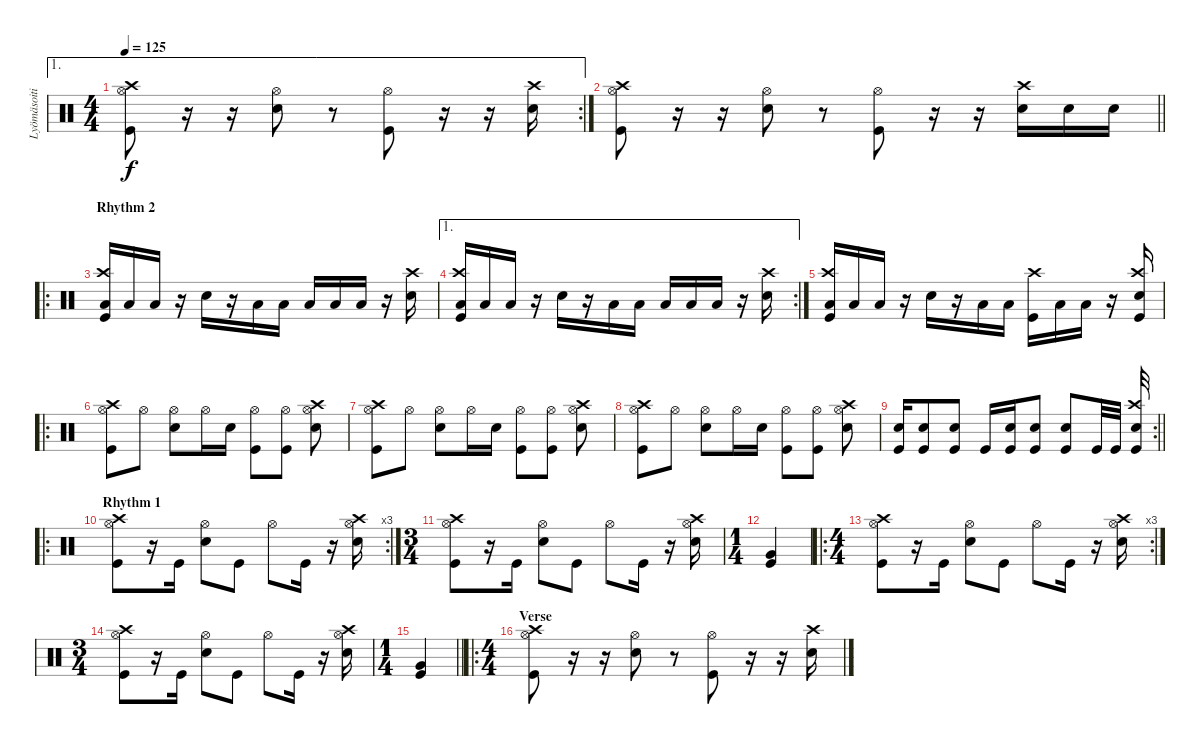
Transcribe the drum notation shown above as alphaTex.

\track ("Lyömäsoitin" "Lyömäsoiti") {instrument percussion}
\staff {score}
\articulation defaults
\ae 1
\rc 2
\ts (4 4)
\tempo 125
\clef neutral
\ks c
("Kick (hit)" "Hi-Hat (open)" "Crash high (hit)").8{dy f} r.16 r.16 ("Snare (hit) 2" "Hi-Hat (open)").8 r.8 ("Hi-Hat (open)" "Kick (hit)").8 r.16 r.16 ("Snare (hit) 2" "Crash high (hit)").16 |
\barLineRight lightlight
("Kick (hit)" "Hi-Hat (open)" "Crash high (hit)").8 r.16 r.16 ("Snare (hit) 2" "Hi-Hat (open)").8 r.8 ("Hi-Hat (open)" "Kick (hit)").8 r.16 r.16 ("Snare (hit) 2" "Crash high (hit)").16 "Snare (hit) 2".16 "Snare (hit) 2".16 |
\ro
\section ("" "Rhythm 2")
("Kick (hit)" "Low Tom (hit)" "Crash high (hit)").16 "Low Tom (hit)".16 "Low Tom (hit)".16 r.16 "Snare (hit) 2".16 r.16 "Low Tom (hit)".16 "Low Tom (hit)".16 "Low Tom (hit)".16 "Low Tom (hit)".16 "Low Tom (hit)".16 r.16 ("Snare (hit) 2" "Crash high (hit)").16 |
\ae 1
\rc 2
("Kick (hit)" "Low Tom (hit)" "Crash high (hit)").16 "Low Tom (hit)".16 "Low Tom (hit)".16 r.16 "Snare (hit) 2".16 r.16 "Low Tom (hit)".16 "Low Tom (hit)".16 "Low Tom (hit)".16 "Low Tom (hit)".16 "Low Tom (hit)".16 r.16 ("Snare (hit) 2" "Crash high (hit)").16 |
("Kick (hit)" "Low Tom (hit)" "Crash high (hit)").16 "Low Tom (hit)".16 "Low Tom (hit)".16 r.16 "Snare (hit) 2".16 r.16 "Low Tom (hit)".16 "Low Tom (hit)".16 ("Crash high (hit)" "Kick (hit)").16 "Low Tom (hit)".16 "Low Tom (hit)".16 r.16 ("Snare (hit) 2" "Crash high (hit)" "Kick (hit)").16 |
\ro
("Kick (hit)" "Hi-Hat (open)" "Crash high (hit)").8 "Hi-Hat (open)".8 ("Hi-Hat (open)" "Snare (hit) 2").8 "Hi-Hat (open)".16 "Snare (hit) 2".16 ("Hi-Hat (open)" "Kick (hit)").8 ("Hi-Hat (open)" "Kick (hit)").8 ("Hi-Hat (open)" "Snare (hit) 2" "Crash high (hit)").8 |
("Kick (hit)" "Hi-Hat (open)" "Crash high (hit)").8 "Hi-Hat (open)".8 ("Hi-Hat (open)" "Snare (hit) 2").8 "Hi-Hat (open)".16 "Snare (hit) 2".16 ("Hi-Hat (open)" "Kick (hit)").8 ("Hi-Hat (open)" "Kick (hit)").8 ("Hi-Hat (open)" "Snare (hit) 2" "Crash high (hit)").8 |
("Kick (hit)" "Hi-Hat (open)" "Crash high (hit)").8 "Hi-Hat (open)".8 ("Hi-Hat (open)" "Snare (hit) 2").8 "Hi-Hat (open)".16 "Snare (hit) 2".16 ("Hi-Hat (open)" "Kick (hit)").8 ("Hi-Hat (open)" "Kick (hit)").8 ("Hi-Hat (open)" "Snare (hit) 2" "Crash high (hit)").8 |
\rc 2
\barLineRight lightlight
("Kick (hit)" "Snare (hit) 2").16 ("Kick (hit)" "Snare (hit) 2").8 ("Kick (hit)" "Snare (hit) 2").8 "Kick (hit)".16 ("Snare (hit) 2" "Kick (hit)").16 ("Snare (hit) 2" "Kick (hit)").8 ("Snare (hit) 2" "Kick (hit)").8 "Kick (hit)".32 "Kick (hit)".32 ("Kick (hit)" "Crash high (hit)" "Snare (hit) 2").32 |
\ro
\rc 3
\section ("" "Rhythm 1")
("Kick (hit)" "Hi-Hat (open)" "Crash high (hit)").8 r.16 "Kick (hit)".16 ("Snare (hit) 2" "Hi-Hat (open)").8 "Kick (hit)".8 "Hi-Hat (open)".8 "Kick (hit)".16 r.16 ("Snare (hit) 2" "Hi-Hat (open)" "Crash high (hit)").16 |
\ts (3 4)
("Kick (hit)" "Hi-Hat (open)" "Crash high (hit)").8 r.16 "Kick (hit)".16 ("Snare (hit) 2" "Hi-Hat (open)").8 "Kick (hit)".8 "Hi-Hat (open)".8 "Kick (hit)".16 r.16 ("Snare (hit) 2" "Hi-Hat (open)" "Crash high (hit)").16 |
\ts (1 4)
("Kick (hit)" "Very Low Tom (hit)").4 |
\ro
\rc 3
\ts (4 4)
("Kick (hit)" "Hi-Hat (open)" "Crash high (hit)").8 r.16 "Kick (hit)".16 ("Snare (hit) 2" "Hi-Hat (open)").8 "Kick (hit)".8 "Hi-Hat (open)".8 "Kick (hit)".16 r.16 ("Snare (hit) 2" "Hi-Hat (open)" "Crash high (hit)").16 |
\ts (3 4)
("Kick (hit)" "Hi-Hat (open)" "Crash high (hit)").8 r.16 "Kick (hit)".16 ("Snare (hit) 2" "Hi-Hat (open)").8 "Kick (hit)".8 "Hi-Hat (open)".8 "Kick (hit)".16 r.16 ("Snare (hit) 2" "Hi-Hat (open)" "Crash high (hit)").16 |
\ts (1 4)
\barLineRight lightlight
("Very Low Tom (hit)" "Kick (hit)").4 |
\ro
\ts (4 4)
\section ("" "Verse")
("Kick (hit)" "Hi-Hat (open)" "Crash high (hit)").8 r.16 r.16 ("Snare (hit) 2" "Hi-Hat (open)").8 r.8 ("Hi-Hat (open)" "Kick (hit)").8 r.16 r.16 ("Snare (hit) 2" "Crash high (hit)").16
